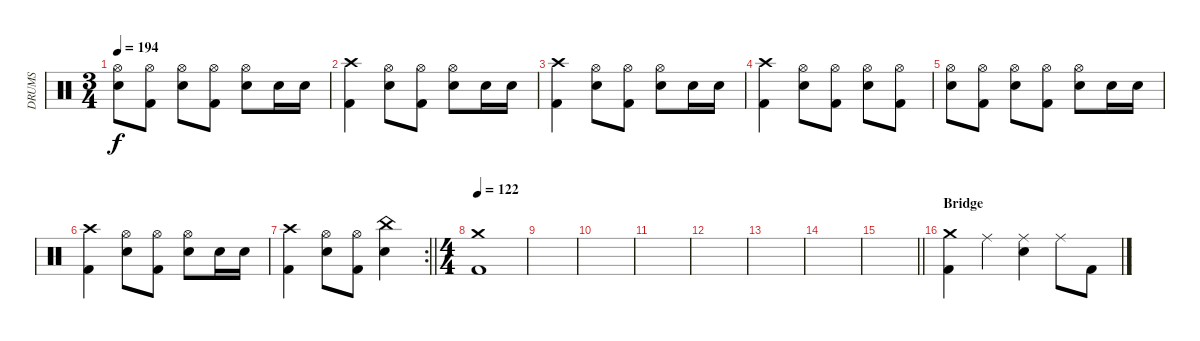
\track ("DRUMS" "DRUMS") {instrument percussion}
\staff {score}
\articulation defaults
\ts (3 4)
\tempo 194
\clef neutral
\ks c
("Hi-Hat (open)" "Snare (hit) 2").8{dy f} ("Hi-Hat (open)" "Kick (hit) 2").8 ("Hi-Hat (open)" "Snare (hit) 2").8 ("Hi-Hat (open)" "Kick (hit) 2").8 ("Hi-Hat (open)" "Snare (hit) 2").8 "Snare (hit) 2".16 "Snare (hit) 2".16 |
("Crash high (hit)" "Kick (hit) 2").4 ("Hi-Hat (open)" "Snare (hit) 2").8 ("Hi-Hat (open)" "Kick (hit) 2").8 ("Hi-Hat (open)" "Snare (hit) 2").8 "Snare (hit) 2".16 "Snare (hit) 2".16 |
("Crash high (hit)" "Kick (hit) 2").4 ("Hi-Hat (open)" "Snare (hit) 2").8 ("Hi-Hat (open)" "Kick (hit) 2").8 ("Hi-Hat (open)" "Snare (hit) 2").8 "Snare (hit) 2".16 "Snare (hit) 2".16 |
("Crash high (hit)" "Kick (hit) 2").4 ("Hi-Hat (open)" "Snare (hit) 2").8 ("Hi-Hat (open)" "Kick (hit) 2").8 ("Hi-Hat (open)" "Snare (hit) 2").8 ("Hi-Hat (open)" "Kick (hit) 2").8 |
("Hi-Hat (open)" "Snare (hit) 2").8 ("Hi-Hat (open)" "Kick (hit) 2").8 ("Hi-Hat (open)" "Snare (hit) 2").8 ("Hi-Hat (open)" "Kick (hit) 2").8 ("Hi-Hat (open)" "Snare (hit) 2").8 "Snare (hit) 2".16 "Snare (hit) 2".16 |
("Crash high (hit)" "Kick (hit) 2").4 ("Hi-Hat (open)" "Snare (hit) 2").8 ("Hi-Hat (open)" "Kick (hit) 2").8 ("Hi-Hat (open)" "Snare (hit) 2").8 "Snare (hit) 2".16 "Snare (hit) 2".16 |
\rc 2
\barLineRight lightlight
("Crash high (hit)" "Kick (hit) 2").4 ("Hi-Hat (open)" "Snare (hit) 2").8 ("Hi-Hat (open)" "Kick (hit) 2").8 ("China (hit)" "Snare (hit) 2").4 |
\ts (4 4)
\tempo 122
("Crash medium (hit)" "Kick (hit) 2").1 |
|
|
|
|
|
|
\barLineRight lightlight
|
\section ("" "Bridge")
("Crash medium (hit)" "Kick (hit) 2").4 "Ride (middle)".4 ("Ride (middle)" "Snare (hit) 2").4 "Ride (middle)".8 "Kick (hit) 2".8
